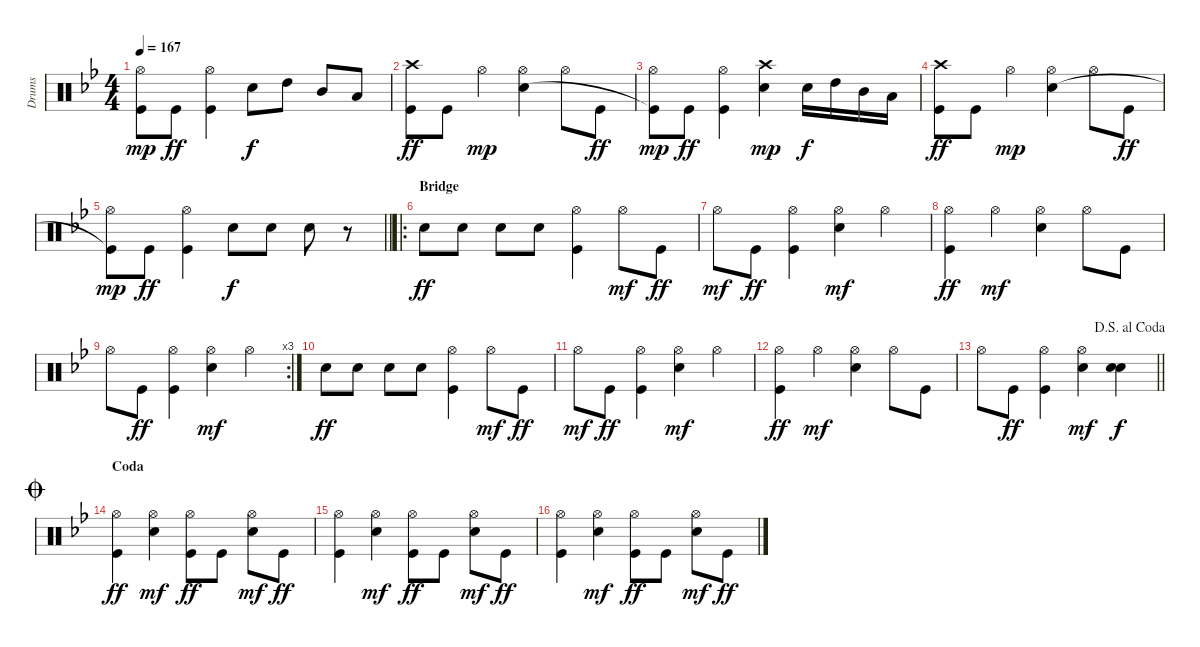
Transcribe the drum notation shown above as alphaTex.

\track ("Drums" "Drums") {instrument percussion}
\staff {score}
\articulation defaults
\ts (4 4)
\tempo 167
\clef neutral
\ks bb
("Hi-Hat (open)" "Kick (hit)"{t}).8{dy mp} "Kick (hit)".8{dy ff} ("Hi-Hat (open)" "Kick (hit)").4 "Electric Snare (hit)".8{dy f} "High Tom (hit)".8 "Mid Tom (hit)".8 "Low Tom (hit)".8 |
("Crash high (hit)" "Kick (hit)").8{dy ff} "Kick (hit)".8 "Hi-Hat (open)".4{dy mp} ("Hi-Hat (open)" "Electric Snare (hit)").4 "Hi-Hat (open)".8 "Kick (hit)".8{dy ff} |
("Hi-Hat (open)" "Kick (hit)"{t}).8{dy mp} "Kick (hit)".8{dy ff} ("Hi-Hat (open)" "Kick (hit)").4 ("Crash high (hit)" "Electric Snare (hit)").4{dy mp} "Electric Snare (hit)".16{dy f} "High Tom (hit)".16 "Mid Tom (hit)".16 "Low Tom (hit)".16 |
("Crash high (hit)" "Kick (hit)").8{dy ff} "Kick (hit)".8 "Hi-Hat (open)".4{dy mp} ("Hi-Hat (open)" "Electric Snare (hit)").4 "Hi-Hat (open)".8 "Kick (hit)".8{dy ff} |
\barLineRight lightlight
("Hi-Hat (open)" "Kick (hit)"{t}).8{dy mp} "Kick (hit)".8{dy ff} ("Hi-Hat (open)" "Kick (hit)").4 "Electric Snare (hit)".8{dy f} "Electric Snare (hit)".8 "Electric Snare (hit)".8 r.8 |
\ro
\section ("" "Bridge")
"Electric Snare (hit)".8{dy ff} "Electric Snare (hit)".8 "Electric Snare (hit)".8 "Electric Snare (hit)".8 ("Hi-Hat (open)" "Kick (hit)").4 "Hi-Hat (open)".8{dy mf} "Kick (hit)".8{dy ff} |
"Hi-Hat (open)".8{dy mf} "Kick (hit)".8{dy ff} ("Hi-Hat (open)" "Kick (hit)").4 ("Hi-Hat (open)" "Electric Snare (hit)").4{dy mf} "Hi-Hat (open)".4 |
("Hi-Hat (open)" "Kick (hit)").4{dy ff} "Hi-Hat (open)".4{dy mf} ("Hi-Hat (open)" "Electric Snare (hit)").4 "Hi-Hat (open)".8 "Kick (hit)".8 |
\rc 3 "Hi-Hat (open)".8 "Kick (hit)".8{dy ff}
("Hi-Hat (open)" "Kick (hit)").4 ("Hi-Hat (open)" "Electric Snare (hit)").4{dy mf} "Hi-Hat (open)".4 |
"Electric Snare (hit)".8{dy ff} "Electric Snare (hit)".8 "Electric Snare (hit)".8 "Electric Snare (hit)".8 ("Hi-Hat (open)" "Kick (hit)").4 "Hi-Hat (open)".8{dy mf} "Kick (hit)".8{dy ff} |
"Hi-Hat (open)".8{dy mf} "Kick (hit)".8{dy ff} ("Hi-Hat (open)" "Kick (hit)").4 ("Hi-Hat (open)" "Electric Snare (hit)").4{dy mf} "Hi-Hat (open)".4 |
("Hi-Hat (open)" "Kick (hit)").4{dy ff} "Hi-Hat (open)".4{dy mf} ("Hi-Hat (open)" "Electric Snare (hit)").4 "Hi-Hat (open)".8 "Kick (hit)".8 |
\jump dalsegnoalcoda
\barLineRight lightlight "Hi-Hat (open)".8 "Kick (hit)".8{dy ff}
("Hi-Hat (open)" "Kick (hit)").4 ("Hi-Hat (open)" "Electric Snare (hit)").4{dy mf} ("Electric Snare (hit)" "Electric Snare (hit)").4{dy f} |
\section ("" "Coda")
\jump coda
("Hi-Hat (open)" "Kick (hit)").4{dy ff} ("Hi-Hat (open)" "Electric Snare (hit)").4{dy mf} ("Hi-Hat (open)" "Kick (hit)").8{dy ff} "Kick (hit)".8 ("Hi-Hat (open)" "Electric Snare (hit)").8{dy mf} "Kick (hit)".8{dy ff} |
("Hi-Hat (open)" "Kick (hit)").4 ("Hi-Hat (open)" "Electric Snare (hit)").4{dy mf} ("Hi-Hat (open)" "Kick (hit)").8{dy ff} "Kick (hit)".8 ("Hi-Hat (open)" "Electric Snare (hit)").8{dy mf} "Kick (hit)".8{dy ff} |
("Hi-Hat (open)" "Kick (hit)").4 ("Hi-Hat (open)" "Electric Snare (hit)").4{dy mf} ("Hi-Hat (open)" "Kick (hit)").8{dy ff} "Kick (hit)".8 ("Hi-Hat (open)" "Electric Snare (hit)").8{dy mf} "Kick (hit)".8{dy ff}
